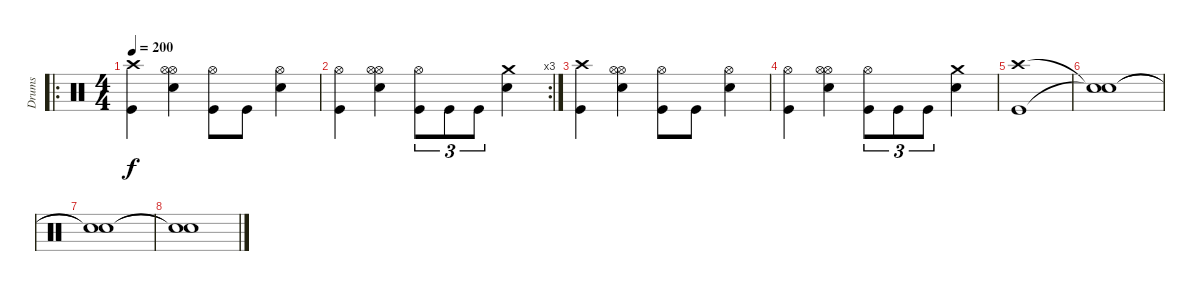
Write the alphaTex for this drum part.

\track ("Drums" "Drums") {instrument percussion}
\staff {score}
\articulation defaults
\ro
\ts (4 4)
\tempo 200
\clef neutral
\ks c
("Crash high (hit)" "Kick (hit)").4{dy f} ("Hi-Hat (open)" "Snare (hit) 2" "Hi-Hat (open)").4 ("Hi-Hat (open)" "Kick (hit)").8 "Kick (hit)".8 ("Hi-Hat (open)" "Snare (hit) 2").4 |
\rc 3
("Hi-Hat (open)" "Kick (hit)").4 ("Hi-Hat (open)" "Snare (hit) 2" "Hi-Hat (open)").4 ("Hi-Hat (open)" "Kick (hit)").8{tu (3 2)} "Kick (hit)".8{tu (3 2)} "Kick (hit)".8{tu (3 2)} ("Crash medium (hit)" "Snare (hit) 2").4 |
("Crash high (hit)" "Kick (hit)").4 ("Hi-Hat (open)" "Snare (hit) 2" "Hi-Hat (open)").4 ("Hi-Hat (open)" "Kick (hit)").8 "Kick (hit)".8 ("Hi-Hat (open)" "Snare (hit) 2").4 |
("Hi-Hat (open)" "Kick (hit)").4 ("Hi-Hat (open)" "Snare (hit) 2" "Hi-Hat (open)").4 ("Hi-Hat (open)" "Kick (hit)").8{tu (3 2)} "Kick (hit)".8{tu (3 2)} "Kick (hit)".8{tu (3 2)} ("Crash medium (hit)" "Snare (hit) 2").4 |
("Crash high (hit)" "Kick (hit)").1 |
("Snare (hit)"{t} "Snare (hit)"{t}).1 |
("Snare (hit)"{t} "Snare (hit)"{t}).1 |
("Snare (hit)"{t} "Snare (hit)"{t}).1
